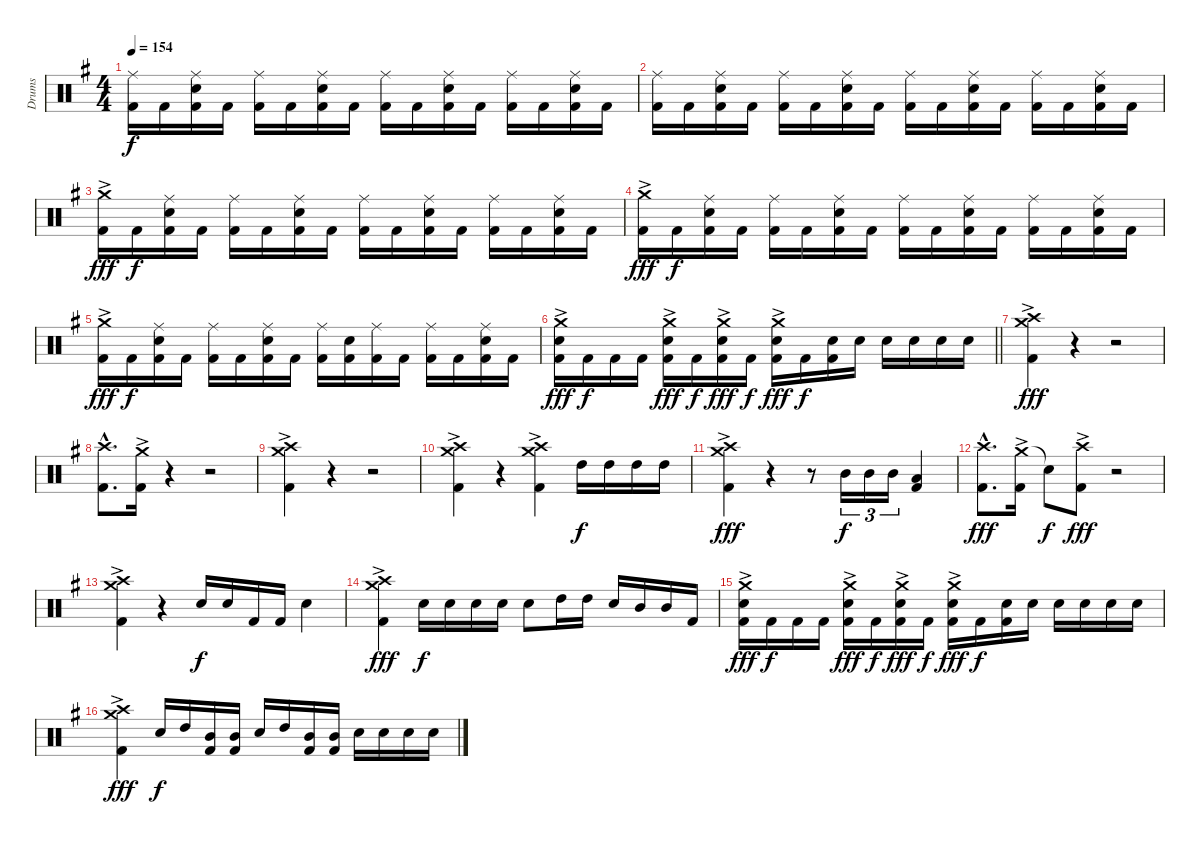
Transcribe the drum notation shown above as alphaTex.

\track ("Drums" "Drums") {instrument percussion}
\staff {score}
\articulation defaults
\ts (4 4)
\tempo 154
\clef neutral
\ks g
("Ride (middle)" "Kick (hit) 2").16{dy f} "Kick (hit) 2".16 ("Ride (middle)" "Snare (hit) 2" "Kick (hit) 2").16 "Kick (hit) 2".16 ("Ride (middle)" "Kick (hit) 2").16 "Kick (hit) 2".16 ("Ride (middle)" "Snare (hit) 2" "Kick (hit) 2").16 "Kick (hit) 2".16 ("Ride (middle)" "Kick (hit) 2").16 "Kick (hit) 2".16 ("Ride (middle)" "Snare (hit) 2" "Kick (hit) 2").16 "Kick (hit) 2".16 ("Ride (middle)" "Kick (hit) 2").16 "Kick (hit) 2".16 ("Ride (middle)" "Snare (hit) 2" "Kick (hit) 2").16 "Kick (hit) 2".16 |
("Ride (middle)" "Kick (hit) 2").16 "Kick (hit) 2".16 ("Ride (middle)" "Snare (hit) 2" "Kick (hit) 2").16 "Kick (hit) 2".16 ("Ride (middle)" "Kick (hit) 2").16 "Kick (hit) 2".16 ("Ride (middle)" "Snare (hit) 2" "Kick (hit) 2").16 "Kick (hit) 2".16 ("Ride (middle)" "Kick (hit) 2").16 "Kick (hit) 2".16 ("Ride (middle)" "Snare (hit) 2" "Kick (hit) 2").16 "Kick (hit) 2".16 ("Ride (middle)" "Kick (hit) 2").16 "Kick (hit) 2".16 ("Ride (middle)" "Snare (hit) 2" "Kick (hit) 2").16 "Kick (hit) 2".16 |
("Crash medium (hit)"{ac} "Kick (hit) 2").16{dy fff} "Kick (hit) 2".16{dy f} ("Ride (middle)" "Snare (hit) 2" "Kick (hit) 2").16 "Kick (hit) 2".16 ("Ride (middle)" "Kick (hit) 2").16 "Kick (hit) 2".16 ("Ride (middle)" "Snare (hit) 2" "Kick (hit) 2").16 "Kick (hit) 2".16 ("Ride (middle)" "Kick (hit) 2").16 "Kick (hit) 2".16 ("Ride (middle)" "Snare (hit) 2" "Kick (hit) 2").16 "Kick (hit) 2".16 ("Ride (middle)" "Kick (hit) 2").16 "Kick (hit) 2".16 ("Ride (middle)" "Snare (hit) 2" "Kick (hit) 2").16 "Kick (hit) 2".16 |
("Crash medium (hit)"{ac} "Kick (hit) 2").16{dy fff} "Kick (hit) 2".16{dy f} ("Ride (middle)" "Snare (hit) 2" "Kick (hit) 2").16 "Kick (hit) 2".16 ("Ride (middle)" "Kick (hit) 2").16 "Kick (hit) 2".16 ("Ride (middle)" "Snare (hit) 2" "Kick (hit) 2").16 "Kick (hit) 2".16 ("Ride (middle)" "Kick (hit) 2").16 "Kick (hit) 2".16 ("Ride (middle)" "Snare (hit) 2" "Kick (hit) 2").16 "Kick (hit) 2".16 ("Ride (middle)" "Kick (hit) 2").16 "Kick (hit) 2".16 ("Ride (middle)" "Snare (hit) 2" "Kick (hit) 2").16 "Kick (hit) 2".16 |
("Crash medium (hit)"{ac} "Kick (hit) 2").16{dy fff} "Kick (hit) 2".16{dy f} ("Ride (middle)" "Snare (hit) 2" "Kick (hit) 2").16 "Kick (hit) 2".16 ("Ride (middle)" "Kick (hit) 2").16 "Kick (hit) 2".16 ("Ride (middle)" "Snare (hit) 2" "Kick (hit) 2").16 "Kick (hit) 2".16 ("Ride (middle)" "Kick (hit) 2").16 ("Snare (hit) 2" "Kick (hit) 2").16 ("Ride (middle)" "Kick (hit) 2").16 "Kick (hit) 2".16 ("Ride (middle)" "Kick (hit) 2").16 "Kick (hit) 2".16 ("Ride (middle)" "Snare (hit) 2" "Kick (hit) 2").16 "Kick (hit) 2".16 |
\barLineRight lightlight
("Crash medium (hit)"{ac} "Snare (hit) 2"{ac} "Kick (hit) 2").16{dy fff} "Kick (hit) 2".16{dy f} "Kick (hit) 2".16 "Kick (hit) 2".16 ("Crash medium (hit)"{ac} "Snare (hit) 2"{ac} "Kick (hit) 2").16{dy fff} "Kick (hit) 2".16{dy f} ("Crash medium (hit)"{ac} "Snare (hit) 2"{ac} "Kick (hit) 2").16{dy fff} "Kick (hit) 2".16{dy f} ("Crash medium (hit)"{ac} "Snare (hit) 2"{ac} "Kick (hit) 2").16{dy fff} "Kick (hit) 2".16{dy f} ("Snare (hit) 2" "Kick (hit) 2").16 "Snare (hit) 2".16 "Snare (hit) 2".16 "Snare (hit) 2".16 "Snare (hit) 2".16 "Snare (hit) 2".16 |
("Crash medium (hit)"{ac} "Crash high (hit)"{ac} "Kick (hit) 2").4{dy fff} r.4 r.2 |
("Crash high (hit)"{hac} "Kick (hit) 2"{hac}).8{d} ("Crash medium (hit)"{ac} "Kick (hit) 2").16 r.4 r.2 |
("Crash medium (hit)"{ac} "Crash high (hit)"{ac} "Kick (hit) 2").4 r.4 r.2 |
("Crash medium (hit)"{ac} "Crash high (hit)"{ac} "Kick (hit) 2").4 r.4 ("Crash medium (hit)"{ac} "Crash high (hit)"{ac} "Kick (hit) 2").4 "High Tom (hit)".16{dy f} "High Tom (hit)".16 "High Tom (hit)".16 "High Tom (hit)".16 |
("Crash medium (hit)"{ac} "Crash high (hit)"{ac} "Kick (hit) 2").4{dy fff} r.4 r.8 "Mid Tom (hit)".16{tu (3 2) dy f} "Mid Tom (hit)".16{tu (3 2)} "Mid Tom (hit)".16{tu (3 2)} ("Low Floor Tom (hit)" "Kick (hit) 2").4 |
("Crash high (hit)"{hac} "Kick (hit) 2"{hac}).8{d dy fff} ("Crash medium (hit)"{ac} "Kick (hit) 2").16 "Snare (hit)"{t}.8{dy f} ("Crash high (hit)"{ac} "Kick (hit) 2").8{dy fff} r.2 |
("Crash medium (hit)"{ac} "Crash high (hit)"{ac} "Kick (hit) 2").4 r.4 "Snare (hit) 2".16{dy f} "Snare (hit) 2".16 "Kick (hit) 2".16 "Kick (hit) 2".16 "Snare (hit) 2".4 |
("Crash medium (hit)"{ac} "Crash high (hit)"{ac} "Kick (hit) 2").4{dy fff} "Snare (hit) 2".16{dy f} "Snare (hit) 2".16 "Snare (hit) 2".16 "Snare (hit) 2".16 "Snare (hit) 2".8 "High Tom (hit)".16 "High Tom (hit)".16 "Snare (hit) 2".16 "Mid Tom (hit)".16 "Mid Tom (hit)".16 "Kick (hit) 2".16 |
("Crash medium (hit)"{ac} "Snare (hit) 2"{ac} "Kick (hit) 2").16{dy fff} "Kick (hit) 2".16{dy f} "Kick (hit) 2".16 "Kick (hit) 2".16 ("Crash medium (hit)"{ac} "Snare (hit) 2"{ac} "Kick (hit) 2").16{dy fff} "Kick (hit) 2".16{dy f} ("Crash medium (hit)"{ac} "Snare (hit) 2"{ac} "Kick (hit) 2").16{dy fff} "Kick (hit) 2".16{dy f} ("Crash medium (hit)"{ac} "Snare (hit) 2"{ac} "Kick (hit) 2").16{dy fff} "Kick (hit) 2".16{dy f} ("Snare (hit) 2" "Kick (hit) 2").16 "Snare (hit) 2".16 "Snare (hit) 2".16 "Snare (hit) 2".16 "Snare (hit) 2".16 "Snare (hit) 2".16 |
("Crash medium (hit)"{ac} "Crash high (hit)"{ac} "Kick (hit) 2").4{dy fff} "Snare (hit) 2".16{dy f} "High Tom (hit)".16 ("Mid Tom (hit)" "Kick (hit) 2").16 ("Mid Tom (hit)" "Kick (hit) 2").16 "Snare (hit) 2".16 "High Tom (hit)".16 ("Mid Tom (hit)" "Kick (hit) 2").16 ("Mid Tom (hit)" "Kick (hit) 2").16 "Snare (hit) 2".16 "Snare (hit) 2".16 "Snare (hit) 2".16 "Snare (hit) 2".16
